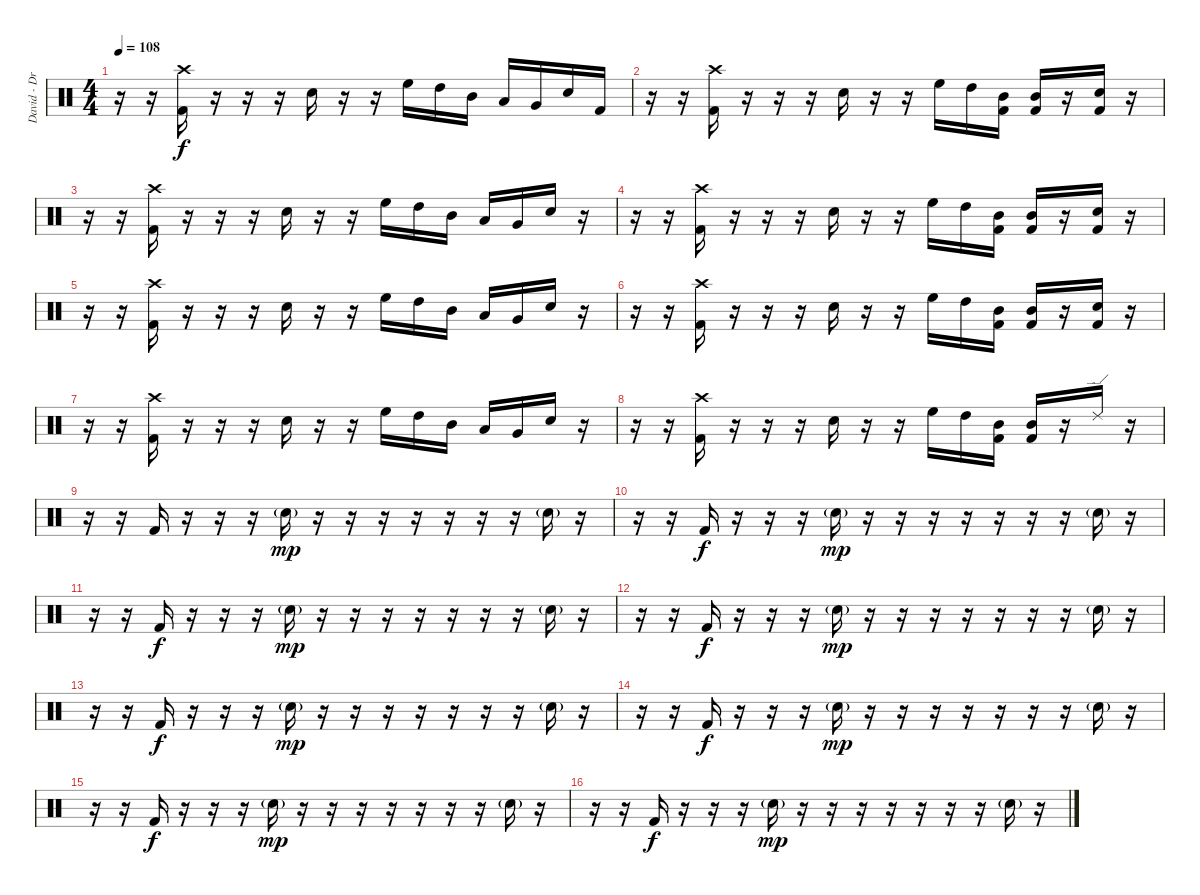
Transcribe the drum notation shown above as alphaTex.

\track ("David - Drums" "David - Dr") {instrument percussion}
\staff {score}
\articulation defaults
\ts (4 4)
\tempo 108
\clef neutral
\ks c
r.16{dy mp} r.16 ("Crash high (hit)" "Kick (hit) 2").16{dy f} r.16 r.16 r.16 "Snare (hit) 2".16 r.16 r.16 "High Floor Tom (hit)".16 "High Tom (hit)".16 "Mid Tom (hit)".16 "Low Tom (hit)".16 "Very Low Tom (hit)".16 "Electric Snare (hit)".16 "Kick (hit) 2".16 |
r.16 r.16 ("Crash high (hit)" "Kick (hit) 2").16 r.16 r.16 r.16 "Snare (hit) 2".16 r.16 r.16 "High Floor Tom (hit)".16 "High Tom (hit)".16 ("Mid Tom (hit)" "Kick (hit) 2").16 ("Mid Tom (hit)" "Kick (hit) 2").16 r.16 ("Electric Snare (hit)" "Kick (hit) 2").16 r.16 |
r.16 r.16 ("Crash high (hit)" "Kick (hit) 2").16 r.16 r.16 r.16 "Snare (hit) 2".16 r.16 r.16 "High Floor Tom (hit)".16 "High Tom (hit)".16 "Mid Tom (hit)".16 "Low Tom (hit)".16 "Very Low Tom (hit)".16 "Electric Snare (hit)".16 r.16 |
r.16 r.16 ("Crash high (hit)" "Kick (hit) 2").16 r.16 r.16 r.16 "Snare (hit) 2".16 r.16 r.16 "High Floor Tom (hit)".16 "High Tom (hit)".16 ("Mid Tom (hit)" "Kick (hit) 2").16 ("Mid Tom (hit)" "Kick (hit) 2").16 r.16 ("Electric Snare (hit)" "Kick (hit) 2").16 r.16 |
r.16 r.16 ("Crash high (hit)" "Kick (hit) 2").16 r.16 r.16 r.16 "Snare (hit) 2".16 r.16 r.16 "High Floor Tom (hit)".16 "High Tom (hit)".16 "Mid Tom (hit)".16 "Low Tom (hit)".16 "Very Low Tom (hit)".16 "Electric Snare (hit)".16 r.16 |
r.16 r.16 ("Crash high (hit)" "Kick (hit) 2").16 r.16 r.16 r.16 "Snare (hit) 2".16 r.16 r.16 "High Floor Tom (hit)".16 "High Tom (hit)".16 ("Mid Tom (hit)" "Kick (hit) 2").16 ("Mid Tom (hit)" "Kick (hit) 2").16 r.16 ("Electric Snare (hit)" "Kick (hit) 2").16 r.16 |
r.16 r.16 ("Crash high (hit)" "Kick (hit) 2").16 r.16 r.16 r.16 "Snare (hit) 2".16 r.16 r.16 "High Floor Tom (hit)".16 "High Tom (hit)".16 "Mid Tom (hit)".16 "Low Tom (hit)".16 "Very Low Tom (hit)".16 "Electric Snare (hit)".16 r.16 |
r.16 r.16 ("Crash high (hit)" "Kick (hit) 2").16 r.16 r.16 r.16 "Snare (hit) 2".16 r.16 r.16 "High Floor Tom (hit)".16 "High Tom (hit)".16 ("Mid Tom (hit)" "Kick (hit) 2").16 ("Mid Tom (hit)" "Kick (hit) 2").16 r.16 "Ride (edge) 2".16 r.16 |
r.16 r.16 "Kick (hit) 2".16 r.16 r.16 r.16 "Hand Clap (hit)"{g}.16{dy mp} r.16 r.16 r.16 r.16 r.16 r.16 r.16 "Hand Clap (hit)"{g}.16 r.16 |
r.16 r.16 "Kick (hit) 2".16{dy f} r.16 r.16 r.16 "Hand Clap (hit)"{g}.16{dy mp} r.16 r.16 r.16 r.16 r.16 r.16 r.16 "Hand Clap (hit)"{g}.16 r.16 |
r.16 r.16 "Kick (hit) 2".16{dy f} r.16 r.16 r.16 "Hand Clap (hit)"{g}.16{dy mp} r.16 r.16 r.16 r.16 r.16 r.16 r.16 "Hand Clap (hit)"{g}.16 r.16 |
r.16 r.16 "Kick (hit) 2".16{dy f} r.16 r.16 r.16 "Hand Clap (hit)"{g}.16{dy mp} r.16 r.16 r.16 r.16 r.16 r.16 r.16 "Hand Clap (hit)"{g}.16 r.16 |
r.16 r.16 "Kick (hit) 2".16{dy f} r.16 r.16 r.16 "Hand Clap (hit)"{g}.16{dy mp} r.16 r.16 r.16 r.16 r.16 r.16 r.16 "Hand Clap (hit)"{g}.16 r.16 |
r.16 r.16 "Kick (hit) 2".16{dy f} r.16 r.16 r.16 "Hand Clap (hit)"{g}.16{dy mp} r.16 r.16 r.16 r.16 r.16 r.16 r.16 "Hand Clap (hit)"{g}.16 r.16 |
r.16 r.16 "Kick (hit) 2".16{dy f} r.16 r.16 r.16 "Hand Clap (hit)"{g}.16{dy mp} r.16 r.16 r.16 r.16 r.16 r.16 r.16 "Hand Clap (hit)"{g}.16 r.16 |
r.16 r.16 "Kick (hit) 2".16{dy f} r.16 r.16 r.16 "Hand Clap (hit)"{g}.16{dy mp} r.16 r.16 r.16 r.16 r.16 r.16 r.16 "Hand Clap (hit)"{g}.16 r.16
